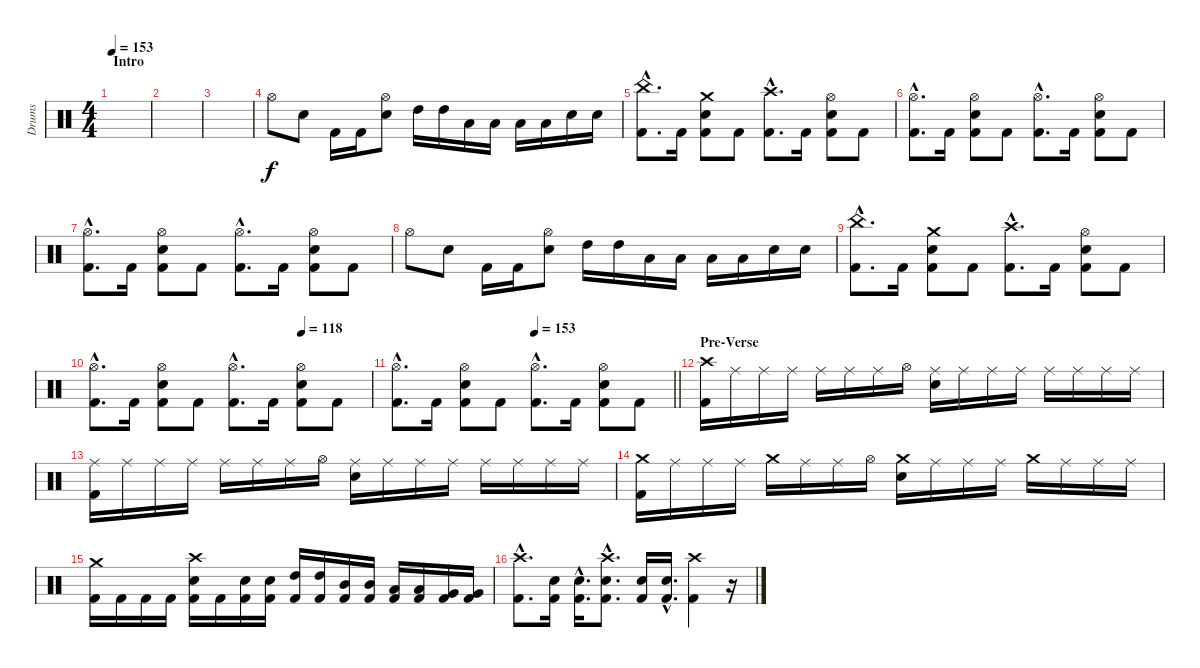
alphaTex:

\track ("Drums" "Drums") {instrument percussion}
\staff {score}
\articulation defaults
\ts (4 4)
\section ("" "Intro")
\tempo 153
\clef neutral
\ks c
|
|
|
"Hi-Hat (open)".8 "Electric Snare (hit)".8 "Kick (hit) 2".16 "Kick (hit) 2".16 ("Hi-Hat (open)" "Electric Snare (hit)").8 "High Tom (hit)".16 "High Tom (hit)".16 "Low Tom (hit)".16 "Low Tom (hit)".16 "Low Floor Tom (hit)".16 "Low Floor Tom (hit)".16 "Electric Snare (hit)".16 "Electric Snare (hit)".16 |
("China (hit)"{hac} "Kick (hit) 2"{hac}).8{d} "Kick (hit) 2".16 ("Crash medium (hit)" "Electric Snare (hit)" "Kick (hit) 2").8 "Kick (hit) 2".8 ("Crash high (hit)"{hac} "Kick (hit) 2"{hac}).8{d} "Kick (hit) 2".16 ("Hi-Hat (open)" "Electric Snare (hit)" "Kick (hit) 2").8 "Kick (hit) 2".8 |
("Hi-Hat (open)"{hac} "Kick (hit) 2"{hac}).8{d} "Kick (hit) 2".16 ("Hi-Hat (open)" "Electric Snare (hit)" "Kick (hit) 2").8 "Kick (hit) 2".8 ("Hi-Hat (open)"{hac} "Kick (hit) 2"{hac}).8{d} "Kick (hit) 2".16 ("Hi-Hat (open)" "Electric Snare (hit)" "Kick (hit) 2").8 "Kick (hit) 2".8 |
("Hi-Hat (open)"{hac} "Kick (hit) 2"{hac}).8{d} "Kick (hit) 2".16 ("Hi-Hat (open)" "Electric Snare (hit)" "Kick (hit) 2").8 "Kick (hit) 2".8 ("Hi-Hat (open)"{hac} "Kick (hit) 2"{hac}).8{d} "Kick (hit) 2".16 ("Hi-Hat (open)" "Electric Snare (hit)" "Kick (hit) 2").8 "Kick (hit) 2".8 |
"Hi-Hat (open)".8 "Electric Snare (hit)".8 "Kick (hit) 2".16 "Kick (hit) 2".16 ("Hi-Hat (open)" "Electric Snare (hit)").8 "High Tom (hit)".16 "High Tom (hit)".16 "Low Tom (hit)".16 "Low Tom (hit)".16 "Low Floor Tom (hit)".16 "Low Floor Tom (hit)".16 "Electric Snare (hit)".16 "Electric Snare (hit)".16 |
("China (hit)"{hac} "Kick (hit) 2"{hac}).8{d} "Kick (hit) 2".16 ("Crash medium (hit)" "Electric Snare (hit)" "Kick (hit) 2").8 "Kick (hit) 2".8 ("Crash high (hit)"{hac} "Kick (hit) 2"{hac}).8{d} "Kick (hit) 2".16 ("Hi-Hat (open)" "Electric Snare (hit)" "Kick (hit) 2").8 "Kick (hit) 2".8 |
\tempo (118 0.75)
("Hi-Hat (open)"{hac} "Kick (hit) 2"{hac}).8{d} "Kick (hit) 2".16 ("Hi-Hat (open)" "Electric Snare (hit)" "Kick (hit) 2").8 "Kick (hit) 2".8 ("Hi-Hat (open)"{hac} "Kick (hit) 2"{hac}).8{d} "Kick (hit) 2".16 ("Hi-Hat (open)" "Electric Snare (hit)" "Kick (hit) 2").8 "Kick (hit) 2".8 |
\tempo (153 0.5)
\barLineRight lightlight
("Hi-Hat (open)"{hac} "Kick (hit) 2"{hac}).8{d} "Kick (hit) 2".16 ("Hi-Hat (open)" "Electric Snare (hit)" "Kick (hit) 2").8 "Kick (hit) 2".8 ("Hi-Hat (open)"{hac} "Kick (hit) 2"{hac}).8{d} "Kick (hit) 2".16 ("Hi-Hat (open)" "Electric Snare (hit)" "Kick (hit) 2").8 "Kick (hit) 2".8 |
\section ("" "Pre-Verse")
("Crash high (hit)" "Kick (hit) 2").16 "Ride (middle)".16 "Ride (middle)".16 "Ride (middle)".16 "Ride (middle)".16 "Ride (middle)".16 "Ride (middle)".16 "Hi-Hat (open)".16 ("Ride (middle)" "Electric Snare (hit)").16 "Ride (middle)".16 "Ride (middle)".16 "Ride (middle)".16 "Ride (middle)".16 "Ride (middle)".16 "Ride (middle)".16 "Ride (middle)".16 |
("Ride (middle)" "Kick (hit) 2").16 "Ride (middle)".16 "Ride (middle)".16 "Ride (middle)".16 "Ride (middle)".16 "Ride (middle)".16 "Ride (middle)".16 "Hi-Hat (open)".16 ("Ride (middle)" "Electric Snare (hit)").16 "Ride (middle)".16 "Ride (middle)".16 "Ride (middle)".16 "Ride (middle)".16 "Ride (middle)".16 "Ride (middle)".16 "Ride (middle)".16 |
("Crash medium (hit)" "Kick (hit) 2").16 "Ride (middle)".16 "Ride (middle)".16 "Ride (middle)".16 "Crash medium (hit)".16 "Ride (middle)".16 "Ride (middle)".16 "Hi-Hat (open)".16 ("Crash medium (hit)" "Electric Snare (hit)").16 "Ride (middle)".16 "Ride (middle)".16 "Ride (middle)".16 "Crash medium (hit)".16 "Ride (middle)".16 "Ride (middle)".16 "Ride (middle)".16 |
("Crash medium (hit)" "Kick (hit) 2").16 "Kick (hit) 2".16 "Kick (hit) 2".16 "Kick (hit) 2".16 ("Crash high (hit)" "Electric Snare (hit)" "Kick (hit) 2").16 "Kick (hit) 2".16 ("Electric Snare (hit)" "Kick (hit) 2").16 ("Electric Snare (hit)" "Kick (hit) 2").16 ("High Tom (hit)" "Kick (hit) 2").16 ("High Tom (hit)" "Kick (hit) 2").16 ("Mid Tom (hit)" "Kick (hit) 2").16 ("Mid Tom (hit)" "Kick (hit) 2").16 ("Low Tom (hit)" "Kick (hit) 2").16 ("Low Tom (hit)" "Kick (hit) 2").16 ("Very Low Tom (hit)" "Kick (hit) 2").16 ("Very Low Tom (hit)" "Kick (hit) 2").16 |
("Crash high (hit)"{hac} "Kick (hit) 2"{hac}).8{d} ("Electric Snare (hit)" "Kick (hit) 2").16 ("Electric Snare (hit)"{hac} "Kick (hit) 2"{hac}).16{d} ("Crash high (hit)"{hac} "Electric Snare (hit)"{hac} "Kick (hit) 2"{hac}).8{d} ("Electric Snare (hit)" "Kick (hit) 2").16 ("Electric Snare (hit)"{hac} "Kick (hit) 2"{hac}).16{d} ("Crash high (hit)" "Kick (hit) 2").4 r.16
